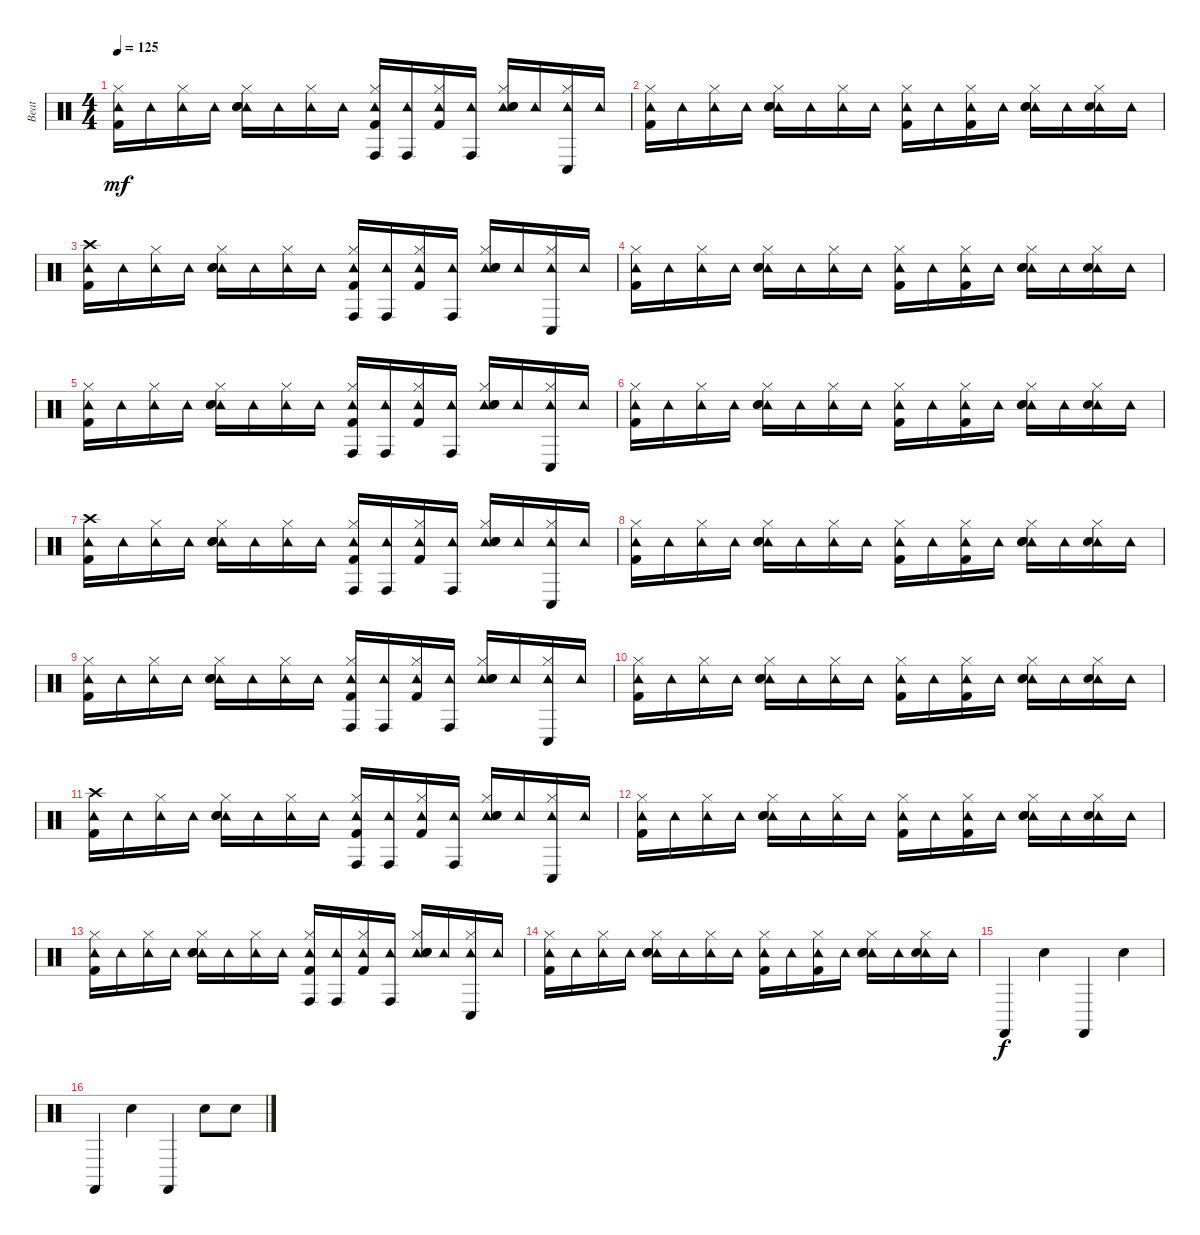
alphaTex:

\track ("Beat" "Beat") {instrument percussion}
\staff {score}
\articulation defaults
\ts (4 4)
\tempo 125
\clef neutral
\ks c
("Hi-Hat (closed)" "Tambourine (hit)" "Kick (hit) 2").16{dy mf} "Tambourine (hit)".16 ("Hi-Hat (closed)" "Tambourine (hit)").16 "Tambourine (hit)".16 ("Hi-Hat (closed)" "Tambourine (hit)" "Snare (hit) 2" "Hand Clap (hit)").16 "Tambourine (hit)".16 ("Hi-Hat (closed)" "Tambourine (hit)").16 "Tambourine (hit)".16 ("Conga high (hit)" "Hi-Hat (closed)" "Tambourine (hit)" "Kick (hit) 2").16 ("Conga high (hit)" "Tambourine (hit)").16 ("Hi-Hat (closed)" "Tambourine (hit)" "Kick (hit) 2").16 ("Conga high (hit)" "Tambourine (hit)").16 ("Hi-Hat (closed)" "Tambourine (hit)" "Snare (hit) 2" "Hand Clap (hit)").16 "Tambourine (hit)".16 ("Conga low (hit)" "Hi-Hat (closed)" "Tambourine (hit)").16 "Tambourine (hit)".16 |
("Hi-Hat (closed)" "Tambourine (hit)" "Kick (hit) 2").16 "Tambourine (hit)".16 ("Hi-Hat (closed)" "Tambourine (hit)").16 "Tambourine (hit)".16 ("Hi-Hat (closed)" "Tambourine (hit)" "Snare (hit) 2" "Hand Clap (hit)").16 "Tambourine (hit)".16 ("Hi-Hat (closed)" "Tambourine (hit)").16 "Tambourine (hit)".16 ("Hi-Hat (closed)" "Tambourine (hit)" "Kick (hit) 2").16 "Tambourine (hit)".16 ("Hi-Hat (closed)" "Tambourine (hit)" "Kick (hit) 2").16 "Tambourine (hit)".16 ("Hi-Hat (closed)" "Tambourine (hit)" "Snare (hit) 2" "Hand Clap (hit)").16 "Tambourine (hit)".16 ("Hi-Hat (closed)" "Tambourine (hit)" "Hand Clap (hit)").16 "Tambourine (hit)".16 |
("Crash high (hit)" "Tambourine (hit)" "Kick (hit) 2").16 "Tambourine (hit)".16 ("Hi-Hat (closed)" "Tambourine (hit)").16 "Tambourine (hit)".16 ("Hi-Hat (closed)" "Tambourine (hit)" "Snare (hit) 2" "Hand Clap (hit)").16 "Tambourine (hit)".16 ("Hi-Hat (closed)" "Tambourine (hit)").16 "Tambourine (hit)".16 ("Conga high (hit)" "Hi-Hat (closed)" "Tambourine (hit)" "Kick (hit) 2").16 ("Conga high (hit)" "Tambourine (hit)").16 ("Hi-Hat (closed)" "Tambourine (hit)" "Kick (hit) 2").16 ("Conga high (hit)" "Tambourine (hit)").16 ("Hi-Hat (closed)" "Tambourine (hit)" "Snare (hit) 2" "Hand Clap (hit)").16 "Tambourine (hit)".16 ("Conga low (hit)" "Hi-Hat (closed)" "Tambourine (hit)").16 "Tambourine (hit)".16 |
("Hi-Hat (closed)" "Tambourine (hit)" "Kick (hit) 2").16 "Tambourine (hit)".16 ("Hi-Hat (closed)" "Tambourine (hit)").16 "Tambourine (hit)".16 ("Hi-Hat (closed)" "Tambourine (hit)" "Snare (hit) 2" "Hand Clap (hit)").16 "Tambourine (hit)".16 ("Hi-Hat (closed)" "Tambourine (hit)").16 "Tambourine (hit)".16 ("Hi-Hat (closed)" "Tambourine (hit)" "Kick (hit) 2").16 "Tambourine (hit)".16 ("Hi-Hat (closed)" "Tambourine (hit)" "Kick (hit) 2").16 "Tambourine (hit)".16 ("Hi-Hat (closed)" "Tambourine (hit)" "Snare (hit) 2" "Hand Clap (hit)").16 "Tambourine (hit)".16 ("Hi-Hat (closed)" "Tambourine (hit)" "Hand Clap (hit)").16 "Tambourine (hit)".16 |
("Hi-Hat (closed)" "Tambourine (hit)" "Kick (hit) 2").16 "Tambourine (hit)".16 ("Hi-Hat (closed)" "Tambourine (hit)").16 "Tambourine (hit)".16 ("Hi-Hat (closed)" "Tambourine (hit)" "Snare (hit) 2" "Hand Clap (hit)").16 "Tambourine (hit)".16 ("Hi-Hat (closed)" "Tambourine (hit)").16 "Tambourine (hit)".16 ("Conga high (hit)" "Hi-Hat (closed)" "Tambourine (hit)" "Kick (hit) 2").16 ("Conga high (hit)" "Tambourine (hit)").16 ("Hi-Hat (closed)" "Tambourine (hit)" "Kick (hit) 2").16 ("Conga high (hit)" "Tambourine (hit)").16 ("Hi-Hat (closed)" "Tambourine (hit)" "Snare (hit) 2" "Hand Clap (hit)").16 "Tambourine (hit)".16 ("Conga low (hit)" "Hi-Hat (closed)" "Tambourine (hit)").16 "Tambourine (hit)".16 |
("Hi-Hat (closed)" "Tambourine (hit)" "Kick (hit) 2").16 "Tambourine (hit)".16 ("Hi-Hat (closed)" "Tambourine (hit)").16 "Tambourine (hit)".16 ("Hi-Hat (closed)" "Tambourine (hit)" "Snare (hit) 2" "Hand Clap (hit)").16 "Tambourine (hit)".16 ("Hi-Hat (closed)" "Tambourine (hit)").16 "Tambourine (hit)".16 ("Hi-Hat (closed)" "Tambourine (hit)" "Kick (hit) 2").16 "Tambourine (hit)".16 ("Hi-Hat (closed)" "Tambourine (hit)" "Kick (hit) 2").16 "Tambourine (hit)".16 ("Hi-Hat (closed)" "Tambourine (hit)" "Snare (hit) 2" "Hand Clap (hit)").16 "Tambourine (hit)".16 ("Hi-Hat (closed)" "Tambourine (hit)" "Hand Clap (hit)").16 "Tambourine (hit)".16 |
("Crash high (hit)" "Tambourine (hit)" "Kick (hit) 2").16 "Tambourine (hit)".16 ("Hi-Hat (closed)" "Tambourine (hit)").16 "Tambourine (hit)".16 ("Hi-Hat (closed)" "Tambourine (hit)" "Snare (hit) 2" "Hand Clap (hit)").16 "Tambourine (hit)".16 ("Hi-Hat (closed)" "Tambourine (hit)").16 "Tambourine (hit)".16 ("Conga high (hit)" "Hi-Hat (closed)" "Tambourine (hit)" "Kick (hit) 2").16 ("Conga high (hit)" "Tambourine (hit)").16 ("Hi-Hat (closed)" "Tambourine (hit)" "Kick (hit) 2").16 ("Conga high (hit)" "Tambourine (hit)").16 ("Hi-Hat (closed)" "Tambourine (hit)" "Snare (hit) 2" "Hand Clap (hit)").16 "Tambourine (hit)".16 ("Conga low (hit)" "Hi-Hat (closed)" "Tambourine (hit)").16 "Tambourine (hit)".16 |
("Hi-Hat (closed)" "Tambourine (hit)" "Kick (hit) 2").16 "Tambourine (hit)".16 ("Hi-Hat (closed)" "Tambourine (hit)").16 "Tambourine (hit)".16 ("Hi-Hat (closed)" "Tambourine (hit)" "Snare (hit) 2" "Hand Clap (hit)").16 "Tambourine (hit)".16 ("Hi-Hat (closed)" "Tambourine (hit)").16 "Tambourine (hit)".16 ("Hi-Hat (closed)" "Tambourine (hit)" "Kick (hit) 2").16 "Tambourine (hit)".16 ("Hi-Hat (closed)" "Tambourine (hit)" "Kick (hit) 2").16 "Tambourine (hit)".16 ("Hi-Hat (closed)" "Tambourine (hit)" "Snare (hit) 2" "Hand Clap (hit)").16 "Tambourine (hit)".16 ("Hi-Hat (closed)" "Tambourine (hit)" "Hand Clap (hit)").16 "Tambourine (hit)".16 |
("Hi-Hat (closed)" "Tambourine (hit)" "Kick (hit) 2").16 "Tambourine (hit)".16 ("Hi-Hat (closed)" "Tambourine (hit)").16 "Tambourine (hit)".16 ("Hi-Hat (closed)" "Tambourine (hit)" "Snare (hit) 2" "Hand Clap (hit)").16 "Tambourine (hit)".16 ("Hi-Hat (closed)" "Tambourine (hit)").16 "Tambourine (hit)".16 ("Conga high (hit)" "Hi-Hat (closed)" "Tambourine (hit)" "Kick (hit) 2").16 ("Conga high (hit)" "Tambourine (hit)").16 ("Hi-Hat (closed)" "Tambourine (hit)" "Kick (hit) 2").16 ("Conga high (hit)" "Tambourine (hit)").16 ("Hi-Hat (closed)" "Tambourine (hit)" "Snare (hit) 2" "Hand Clap (hit)").16 "Tambourine (hit)".16 ("Conga low (hit)" "Hi-Hat (closed)" "Tambourine (hit)").16 "Tambourine (hit)".16 |
("Hi-Hat (closed)" "Tambourine (hit)" "Kick (hit) 2").16 "Tambourine (hit)".16 ("Hi-Hat (closed)" "Tambourine (hit)").16 "Tambourine (hit)".16 ("Hi-Hat (closed)" "Tambourine (hit)" "Snare (hit) 2" "Hand Clap (hit)").16 "Tambourine (hit)".16 ("Hi-Hat (closed)" "Tambourine (hit)").16 "Tambourine (hit)".16 ("Hi-Hat (closed)" "Tambourine (hit)" "Kick (hit) 2").16 "Tambourine (hit)".16 ("Hi-Hat (closed)" "Tambourine (hit)" "Kick (hit) 2").16 "Tambourine (hit)".16 ("Hi-Hat (closed)" "Tambourine (hit)" "Snare (hit) 2" "Hand Clap (hit)").16 "Tambourine (hit)".16 ("Hi-Hat (closed)" "Tambourine (hit)" "Hand Clap (hit)").16 "Tambourine (hit)".16 |
("Crash high (hit)" "Tambourine (hit)" "Kick (hit) 2").16 "Tambourine (hit)".16 ("Hi-Hat (closed)" "Tambourine (hit)").16 "Tambourine (hit)".16 ("Hi-Hat (closed)" "Tambourine (hit)" "Snare (hit) 2" "Hand Clap (hit)").16 "Tambourine (hit)".16 ("Hi-Hat (closed)" "Tambourine (hit)").16 "Tambourine (hit)".16 ("Conga high (hit)" "Hi-Hat (closed)" "Tambourine (hit)" "Kick (hit) 2").16 ("Conga high (hit)" "Tambourine (hit)").16 ("Hi-Hat (closed)" "Tambourine (hit)" "Kick (hit) 2").16 ("Conga high (hit)" "Tambourine (hit)").16 ("Hi-Hat (closed)" "Tambourine (hit)" "Snare (hit) 2" "Hand Clap (hit)").16 "Tambourine (hit)".16 ("Conga low (hit)" "Hi-Hat (closed)" "Tambourine (hit)").16 "Tambourine (hit)".16 |
("Hi-Hat (closed)" "Tambourine (hit)" "Kick (hit) 2").16 "Tambourine (hit)".16 ("Hi-Hat (closed)" "Tambourine (hit)").16 "Tambourine (hit)".16 ("Hi-Hat (closed)" "Tambourine (hit)" "Snare (hit) 2" "Hand Clap (hit)").16 "Tambourine (hit)".16 ("Hi-Hat (closed)" "Tambourine (hit)").16 "Tambourine (hit)".16 ("Hi-Hat (closed)" "Tambourine (hit)" "Kick (hit) 2").16 "Tambourine (hit)".16 ("Hi-Hat (closed)" "Tambourine (hit)" "Kick (hit) 2").16 "Tambourine (hit)".16 ("Hi-Hat (closed)" "Tambourine (hit)" "Snare (hit) 2" "Hand Clap (hit)").16 "Tambourine (hit)".16 ("Hi-Hat (closed)" "Tambourine (hit)" "Hand Clap (hit)").16 "Tambourine (hit)".16 |
("Hi-Hat (closed)" "Tambourine (hit)" "Kick (hit) 2").16 "Tambourine (hit)".16 ("Hi-Hat (closed)" "Tambourine (hit)").16 "Tambourine (hit)".16 ("Hi-Hat (closed)" "Tambourine (hit)" "Snare (hit) 2" "Hand Clap (hit)").16 "Tambourine (hit)".16 ("Hi-Hat (closed)" "Tambourine (hit)").16 "Tambourine (hit)".16 ("Conga high (hit)" "Hi-Hat (closed)" "Tambourine (hit)" "Kick (hit) 2").16 ("Conga high (hit)" "Tambourine (hit)").16 ("Hi-Hat (closed)" "Tambourine (hit)" "Kick (hit) 2").16 ("Conga high (hit)" "Tambourine (hit)").16 ("Hi-Hat (closed)" "Tambourine (hit)" "Snare (hit) 2" "Hand Clap (hit)").16 "Tambourine (hit)".16 ("Conga low (hit)" "Hi-Hat (closed)" "Tambourine (hit)").16 "Tambourine (hit)".16 |
("Hi-Hat (closed)" "Tambourine (hit)" "Kick (hit) 2").16 "Tambourine (hit)".16 ("Hi-Hat (closed)" "Tambourine (hit)").16 "Tambourine (hit)".16 ("Hi-Hat (closed)" "Tambourine (hit)" "Snare (hit) 2" "Hand Clap (hit)").16 "Tambourine (hit)".16 ("Hi-Hat (closed)" "Tambourine (hit)").16 "Tambourine (hit)".16 ("Hi-Hat (closed)" "Tambourine (hit)" "Kick (hit) 2").16 "Tambourine (hit)".16 ("Hi-Hat (closed)" "Tambourine (hit)" "Kick (hit) 2").16 "Tambourine (hit)".16 ("Hi-Hat (closed)" "Tambourine (hit)" "Snare (hit) 2" "Hand Clap (hit)").16 "Tambourine (hit)".16 ("Hi-Hat (closed)" "Tambourine (hit)" "Hand Clap (hit)").16 "Tambourine (hit)".16 |
"Castanets (hit)".4{dy f} "Hand Clap (hit)".4 "Castanets (hit)".4 "Hand Clap (hit)".4 |
"Castanets (hit)".4 "Hand Clap (hit)".4 "Castanets (hit)".4 "Hand Clap (hit)".8 "Hand Clap (hit)".8
